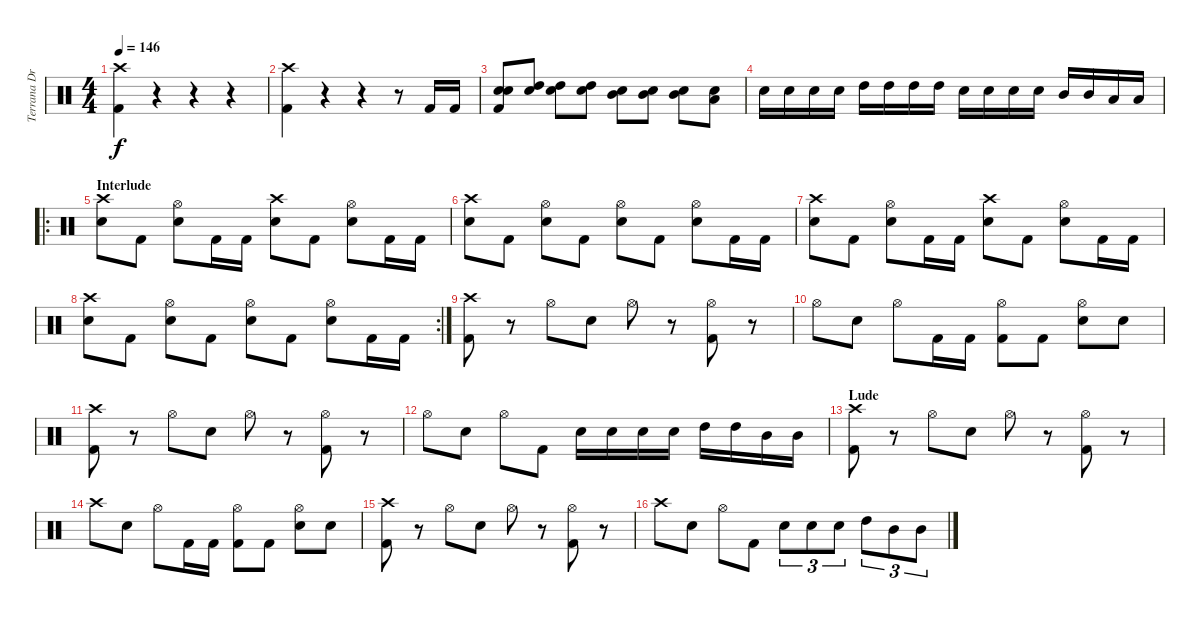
\track ("Terrana Drums" "Terrana Dr") {instrument percussion}
\staff {score}
\articulation defaults
\ts (4 4)
\tempo 146
\clef neutral
\ks c
("Crash high (hit)" "Kick (hit) 2").4{dy f} r.4 r.4 r.4 |
("Crash high (hit)" "Kick (hit) 2").4 r.4 r.4 r.8 "Kick (hit) 2".16 "Kick (hit) 2".16 |
("Electric Snare (hit)" "Electric Snare (hit)" "Kick (hit) 2").8 ("High Tom (hit)" "Electric Snare (hit)").8 ("High Tom (hit)" "Electric Snare (hit)").8 ("High Tom (hit)" "Electric Snare (hit)").8 ("Mid Tom (hit)" "Electric Snare (hit)").8 ("Mid Tom (hit)" "Electric Snare (hit)").8 ("Mid Tom (hit)" "Electric Snare (hit)").8 ("Low Tom (hit)" "Electric Snare (hit)").8 |
"Electric Snare (hit)".16 "Electric Snare (hit)".16 "Electric Snare (hit)".16 "Electric Snare (hit)".16 "High Tom (hit)".16 "High Tom (hit)".16 "High Tom (hit)".16 "High Tom (hit)".16 "Electric Snare (hit)".16 "Electric Snare (hit)".16 "Electric Snare (hit)".16 "Electric Snare (hit)".16 "Mid Tom (hit)".16 "Mid Tom (hit)".16 "Low Tom (hit)".16 "Low Tom (hit)".16 |
\ro
\section ("" "Interlude")
("Crash high (hit)" "Electric Snare (hit)").8 "Kick (hit) 2".8 ("Hi-Hat (open)" "Electric Snare (hit)").8 "Kick (hit) 2".16 "Kick (hit) 2".16 ("Crash high (hit)" "Electric Snare (hit)").8 "Kick (hit) 2".8 ("Hi-Hat (open)" "Electric Snare (hit)").8 "Kick (hit) 2".16 "Kick (hit) 2".16 |
("Crash high (hit)" "Electric Snare (hit)").8 "Kick (hit) 2".8 ("Hi-Hat (open)" "Electric Snare (hit)").8 "Kick (hit) 2".8 ("Hi-Hat (open)" "Electric Snare (hit)").8 "Kick (hit) 2".8 ("Hi-Hat (open)" "Electric Snare (hit)").8 "Kick (hit) 2".16 "Kick (hit) 2".16 |
("Crash high (hit)" "Electric Snare (hit)").8 "Kick (hit) 2".8 ("Hi-Hat (open)" "Electric Snare (hit)").8 "Kick (hit) 2".16 "Kick (hit) 2".16 ("Crash high (hit)" "Electric Snare (hit)").8 "Kick (hit) 2".8 ("Hi-Hat (open)" "Electric Snare (hit)").8 "Kick (hit) 2".16 "Kick (hit) 2".16 |
\rc 2
("Crash high (hit)" "Electric Snare (hit)").8 "Kick (hit) 2".8 ("Hi-Hat (open)" "Electric Snare (hit)").8 "Kick (hit) 2".8 ("Hi-Hat (open)" "Electric Snare (hit)").8 "Kick (hit) 2".8 ("Hi-Hat (open)" "Electric Snare (hit)").8 "Kick (hit) 2".16 "Kick (hit) 2".16 |
("Crash high (hit)" "Kick (hit) 2").8 r.8 "Hi-Hat (open)".8 "Electric Snare (hit)".8 "Hi-Hat (open)".8 r.8 ("Hi-Hat (open)" "Kick (hit) 2").8 r.8 |
"Hi-Hat (open)".8 "Electric Snare (hit)".8 "Hi-Hat (open)".8 "Kick (hit) 2".16 "Kick (hit) 2".16 ("Hi-Hat (open)" "Kick (hit) 2").8 "Kick (hit) 2".8 ("Hi-Hat (open)" "Electric Snare (hit)").8 "Electric Snare (hit)".8 |
("Crash high (hit)" "Kick (hit) 2").8 r.8 "Hi-Hat (open)".8 "Electric Snare (hit)".8 "Hi-Hat (open)".8 r.8 ("Hi-Hat (open)" "Kick (hit) 2").8 r.8 |
"Hi-Hat (open)".8 "Electric Snare (hit)".8 "Hi-Hat (open)".8 "Kick (hit) 2".8 "Electric Snare (hit)".16 "Electric Snare (hit)".16 "Electric Snare (hit)".16 "Electric Snare (hit)".16 "High Tom (hit)".16 "High Tom (hit)".16 "Mid Tom (hit)".16 "Mid Tom (hit)".16 |
\section ("" "Lude")
("Crash high (hit)" "Kick (hit) 2").8 r.8 "Hi-Hat (open)".8 "Electric Snare (hit)".8 "Hi-Hat (open)".8 r.8 ("Hi-Hat (open)" "Kick (hit) 2").8 r.8 |
"Crash high (hit)".8 "Electric Snare (hit)".8 "Hi-Hat (open)".8 "Kick (hit) 2".16 "Kick (hit) 2".16 ("Hi-Hat (open)" "Kick (hit) 2").8 "Kick (hit) 2".8 ("Hi-Hat (open)" "Electric Snare (hit)").8 "Electric Snare (hit)".8 |
("Crash high (hit)" "Kick (hit) 2").8 r.8 "Hi-Hat (open)".8 "Electric Snare (hit)".8 "Hi-Hat (open)".8 r.8 ("Hi-Hat (open)" "Kick (hit) 2").8 r.8 |
"Crash high (hit)".8 "Electric Snare (hit)".8 "Hi-Hat (open)".8 "Kick (hit) 2".8 "Electric Snare (hit)".8{tu (3 2)} "Electric Snare (hit)".8{tu (3 2)} "Electric Snare (hit)".8{tu (3 2)} "High Tom (hit)".8{tu (3 2)} "Mid Tom (hit)".8{tu (3 2)} "Mid Tom (hit)".8{tu (3 2)}
